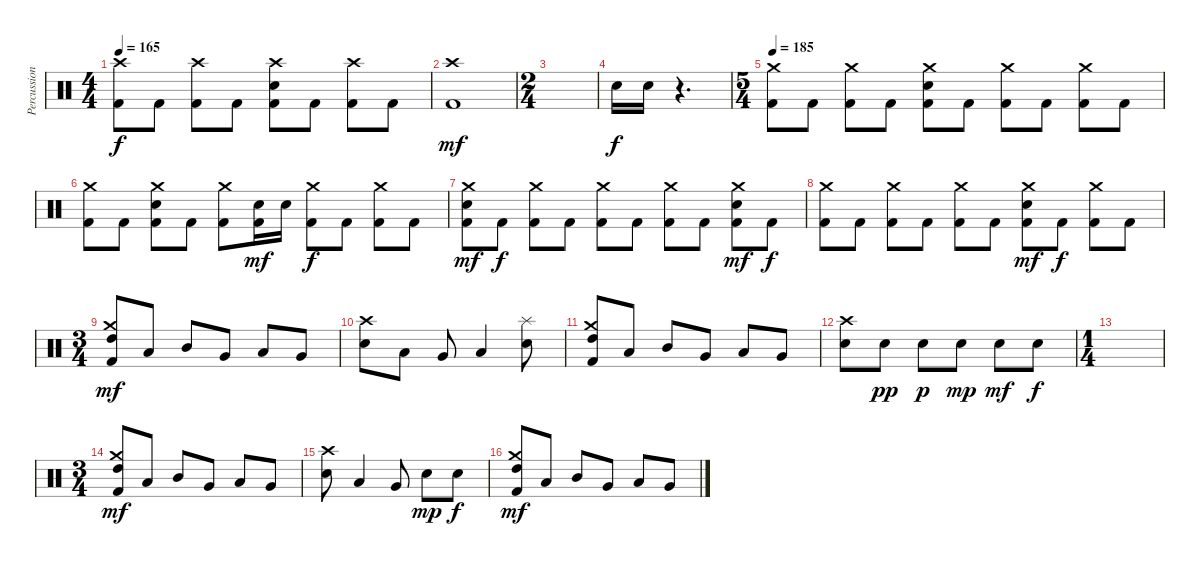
\track ("Percussion" "Percussion") {instrument percussion}
\staff {score}
\articulation defaults
\ts (4 4)
\tempo 165
\clef neutral
\ks c
("Crash high (hit)" "Kick (hit) 2").8{dy f} "Kick (hit) 2".8 ("Crash high (hit)" "Kick (hit) 2").8 "Kick (hit) 2".8 ("Crash high (hit)" "Electric Snare (hit)" "Kick (hit) 2").8 "Kick (hit) 2".8 ("Crash high (hit)" "Kick (hit) 2").8 "Kick (hit) 2".8 |
("Crash high (hit)" "Kick (hit) 2").1{dy mf} |
\ts (2 4)
|
"Electric Snare (hit)".16{dy f} "Electric Snare (hit)".16 r.4{d} |
\ts (5 4)
\tempo 185
("Crash medium (hit)" "Kick (hit) 2").8 "Kick (hit) 2".8 ("Crash medium (hit)" "Kick (hit) 2").8 "Kick (hit) 2".8 ("Crash medium (hit)" "Electric Snare (hit)" "Kick (hit) 2").8 "Kick (hit) 2".8 ("Crash medium (hit)" "Kick (hit) 2").8 "Kick (hit) 2".8 ("Crash medium (hit)" "Kick (hit) 2").8 "Kick (hit) 2".8 |
("Crash medium (hit)" "Kick (hit) 2").8 "Kick (hit) 2".8 ("Crash medium (hit)" "Electric Snare (hit)" "Kick (hit) 2").8 "Kick (hit) 2".8 ("Crash medium (hit)" "Kick (hit) 2").8 ("Electric Snare (hit)" "Kick (hit) 2").16{dy mf} "Electric Snare (hit)".16 ("Crash medium (hit)" "Kick (hit) 2").8{dy f} "Kick (hit) 2".8 ("Crash medium (hit)" "Kick (hit) 2").8 "Kick (hit) 2".8 |
("Crash medium (hit)" "Electric Snare (hit)" "Kick (hit) 2").8{dy mf} "Kick (hit) 2".8{dy f} ("Crash medium (hit)" "Kick (hit) 2").8 "Kick (hit) 2".8 ("Crash medium (hit)" "Kick (hit) 2").8 "Kick (hit) 2".8 ("Crash medium (hit)" "Kick (hit) 2").8 "Kick (hit) 2".8 ("Crash medium (hit)" "Electric Snare (hit)" "Kick (hit) 2").8{dy mf} "Kick (hit) 2".8{dy f} |
("Crash medium (hit)" "Kick (hit) 2").8 "Kick (hit) 2".8 ("Crash medium (hit)" "Kick (hit) 2").8 "Kick (hit) 2".8 ("Crash medium (hit)" "Kick (hit) 2").8 "Kick (hit) 2".8 ("Crash medium (hit)" "Electric Snare (hit)" "Kick (hit) 2").8{dy mf} "Kick (hit) 2".8{dy f} ("Crash medium (hit)" "Kick (hit) 2").8 "Kick (hit) 2".8 |
\ts (3 4)
("Crash medium (hit)" "High Tom (hit)" "Kick (hit) 2").8{dy mf} "Low Tom (hit)".8 "Mid Tom (hit)".8 "Very Low Tom (hit)".8 "Low Tom (hit)".8 "Very Low Tom (hit)".8 |
("Crash high (hit)" "Electric Snare (hit)").8 "Low Floor Tom (hit)".8 "Very Low Tom (hit)".8 "Low Tom (hit)".4 ("Splash (hit)" "Electric Snare (hit)").8 |
("Crash medium (hit)" "High Tom (hit)" "Kick (hit) 2").8 "Low Tom (hit)".8 "Mid Tom (hit)".8 "Very Low Tom (hit)".8 "Low Tom (hit)".8 "Very Low Tom (hit)".8 |
("Crash high (hit)" "Electric Snare (hit)").8 "Electric Snare (hit)".8{dy pp} "Electric Snare (hit)".8{dy p} "Electric Snare (hit)".8{dy mp} "Electric Snare (hit)".8{dy mf} "Electric Snare (hit)".8{dy f} |
\ts (1 4)
|
\ts (3 4)
("Crash medium (hit)" "High Tom (hit)" "Kick (hit) 2").8{dy mf} "Low Tom (hit)".8 "Mid Tom (hit)".8 "Very Low Tom (hit)".8 "Low Tom (hit)".8 "Very Low Tom (hit)".8 |
("Crash high (hit)" "Electric Snare (hit)").8 "Low Floor Tom (hit)".4 "Very Low Tom (hit)".8 "Electric Snare (hit)".8{dy mp} "Electric Snare (hit)".8{dy f} |
("Crash medium (hit)" "High Tom (hit)" "Kick (hit) 2").8{dy mf} "Low Tom (hit)".8 "Mid Tom (hit)".8 "Very Low Tom (hit)".8 "Low Tom (hit)".8 "Very Low Tom (hit)".8
